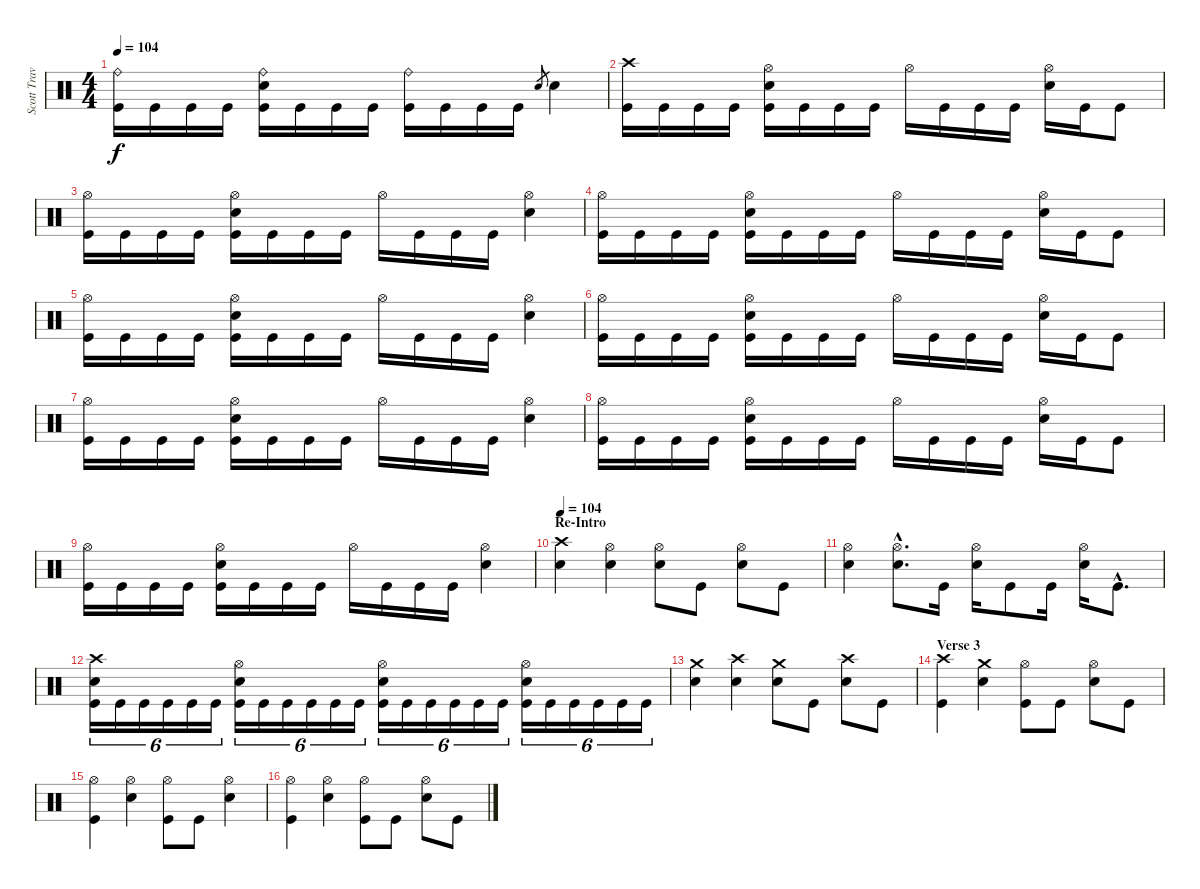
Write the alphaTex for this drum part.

\track ("Scott Travis" "Scott Trav") {instrument percussion}
\staff {score}
\articulation defaults
\ts (4 4)
\tempo 104
\clef neutral
\ks c
("Ride (bell)" "Kick (hit)").16{dy f} "Kick (hit)".16 "Kick (hit)".16 "Kick (hit)".16 ("Ride (bell)" "Electric Snare (hit)" "Kick (hit)").16 "Kick (hit)".16 "Kick (hit)".16 "Kick (hit)".16 ("Ride (bell)" "Kick (hit)").16 "Kick (hit)".16 "Kick (hit)".16 "Kick (hit)".16 "Electric Snare (hit)".8{gr} "Electric Snare (hit)".4 |
("Crash high (hit)" "Kick (hit)").16{volume 16} "Kick (hit)".16 "Kick (hit)".16 "Kick (hit)".16 ("Hi-Hat (open)" "Electric Snare (hit)" "Kick (hit)").16 "Kick (hit)".16 "Kick (hit)".16 "Kick (hit)".16 "Hi-Hat (open)".16 "Kick (hit)".16 "Kick (hit)".16 "Kick (hit)".16 ("Hi-Hat (open)" "Electric Snare (hit)").16 "Kick (hit)".16 "Kick (hit)".8 |
("Hi-Hat (open)" "Kick (hit)").16 "Kick (hit)".16 "Kick (hit)".16 "Kick (hit)".16 ("Hi-Hat (open)" "Electric Snare (hit)" "Kick (hit)").16 "Kick (hit)".16 "Kick (hit)".16 "Kick (hit)".16 "Hi-Hat (open)".16 "Kick (hit)".16 "Kick (hit)".16 "Kick (hit)".16 ("Hi-Hat (open)" "Electric Snare (hit)").4 |
("Hi-Hat (open)" "Kick (hit)").16 "Kick (hit)".16 "Kick (hit)".16 "Kick (hit)".16 ("Hi-Hat (open)" "Electric Snare (hit)" "Kick (hit)").16 "Kick (hit)".16 "Kick (hit)".16 "Kick (hit)".16 "Hi-Hat (open)".16 "Kick (hit)".16 "Kick (hit)".16 "Kick (hit)".16 ("Hi-Hat (open)" "Electric Snare (hit)").16 "Kick (hit)".16 "Kick (hit)".8 |
("Hi-Hat (open)" "Kick (hit)").16 "Kick (hit)".16 "Kick (hit)".16 "Kick (hit)".16 ("Hi-Hat (open)" "Electric Snare (hit)" "Kick (hit)").16 "Kick (hit)".16 "Kick (hit)".16 "Kick (hit)".16 "Hi-Hat (open)".16 "Kick (hit)".16 "Kick (hit)".16 "Kick (hit)".16 ("Hi-Hat (open)" "Electric Snare (hit)").4 |
("Hi-Hat (open)" "Kick (hit)").16 "Kick (hit)".16 "Kick (hit)".16 "Kick (hit)".16 ("Hi-Hat (open)" "Electric Snare (hit)" "Kick (hit)").16 "Kick (hit)".16 "Kick (hit)".16 "Kick (hit)".16 "Hi-Hat (open)".16 "Kick (hit)".16 "Kick (hit)".16 "Kick (hit)".16 ("Hi-Hat (open)" "Electric Snare (hit)").16 "Kick (hit)".16 "Kick (hit)".8 |
("Hi-Hat (open)" "Kick (hit)").16 "Kick (hit)".16 "Kick (hit)".16 "Kick (hit)".16 ("Hi-Hat (open)" "Electric Snare (hit)" "Kick (hit)").16 "Kick (hit)".16 "Kick (hit)".16 "Kick (hit)".16 "Hi-Hat (open)".16 "Kick (hit)".16 "Kick (hit)".16 "Kick (hit)".16 ("Hi-Hat (open)" "Electric Snare (hit)").4 |
("Hi-Hat (open)" "Kick (hit)").16 "Kick (hit)".16 "Kick (hit)".16 "Kick (hit)".16 ("Hi-Hat (open)" "Electric Snare (hit)" "Kick (hit)").16 "Kick (hit)".16 "Kick (hit)".16 "Kick (hit)".16 "Hi-Hat (open)".16 "Kick (hit)".16 "Kick (hit)".16 "Kick (hit)".16 ("Hi-Hat (open)" "Electric Snare (hit)").16 "Kick (hit)".16 "Kick (hit)".8 |
("Hi-Hat (open)" "Kick (hit)").16 "Kick (hit)".16 "Kick (hit)".16 "Kick (hit)".16 ("Hi-Hat (open)" "Electric Snare (hit)" "Kick (hit)").16 "Kick (hit)".16 "Kick (hit)".16 "Kick (hit)".16 "Hi-Hat (open)".16 "Kick (hit)".16 "Kick (hit)".16 "Kick (hit)".16 ("Hi-Hat (open)" "Electric Snare (hit)").4 |
\section ("" "Re-Intro")
\tempo 104
("Crash high (hit)" "Electric Snare (hit)").4 ("Hi-Hat (open)" "Electric Snare (hit)").4 ("Hi-Hat (open)" "Electric Snare (hit)").8 "Kick (hit)".8 ("Hi-Hat (open)" "Electric Snare (hit)").8 "Kick (hit)".8 |
("Hi-Hat (open)" "Electric Snare (hit)").4 ("Hi-Hat (open)"{hac} "Electric Snare (hit)"{hac}).8{d} "Kick (hit)".16 ("Hi-Hat (open)" "Electric Snare (hit)").16 "Kick (hit)".8 "Kick (hit)".16 ("Hi-Hat (open)" "Electric Snare (hit)").16 "Kick (hit)"{hac}.8{d} |
("Crash high (hit)" "Electric Snare (hit)" "Kick (hit)").16{tu (6 4)} "Kick (hit)".16{tu (6 4)} "Kick (hit)".16{tu (6 4)} "Kick (hit)".16{tu (6 4)} "Kick (hit)".16{tu (6 4)} "Kick (hit)".16{tu (6 4)} ("Hi-Hat (open)" "Electric Snare (hit)" "Kick (hit)").16{tu (6 4)} "Kick (hit)".16{tu (6 4)} "Kick (hit)".16{tu (6 4)} "Kick (hit)".16{tu (6 4)} "Kick (hit)".16{tu (6 4)} "Kick (hit)".16{tu (6 4)} ("Hi-Hat (open)" "Electric Snare (hit)" "Kick (hit)").16{tu (6 4)} "Kick (hit)".16{tu (6 4)} "Kick (hit)".16{tu (6 4)} "Kick (hit)".16{tu (6 4)} "Kick (hit)".16{tu (6 4)} "Kick (hit)".16{tu (6 4)} ("Hi-Hat (open)" "Electric Snare (hit)" "Kick (hit)").16{tu (6 4)} "Kick (hit)".16{tu (6 4)} "Kick (hit)".16{tu (6 4)} "Kick (hit)".16{tu (6 4)} "Kick (hit)".16{tu (6 4)} "Kick (hit)".16{tu (6 4)} |
("Crash medium (hit)" "Electric Snare (hit)").4 ("Crash high (hit)" "Electric Snare (hit)").4 ("Crash medium (hit)" "Electric Snare (hit)").8 "Kick (hit)".8 ("Crash high (hit)" "Electric Snare (hit)").8 "Kick (hit)".8 |
\section ("" "Verse 3")
("Crash high (hit)" "Kick (hit)").4 ("Crash medium (hit)" "Electric Snare (hit)").4 ("Hi-Hat (open)" "Kick (hit)").8 "Kick (hit)".8 ("Hi-Hat (open)" "Electric Snare (hit)").8 "Kick (hit)".8 |
("Hi-Hat (open)" "Kick (hit)").4 ("Hi-Hat (open)" "Electric Snare (hit)").4 ("Hi-Hat (open)" "Kick (hit)").8 "Kick (hit)".8 ("Hi-Hat (open)" "Electric Snare (hit)").4 |
("Hi-Hat (open)" "Kick (hit)").4 ("Hi-Hat (open)" "Electric Snare (hit)").4 ("Hi-Hat (open)" "Kick (hit)").8 "Kick (hit)".8 ("Hi-Hat (open)" "Electric Snare (hit)").8 "Kick (hit)".8
